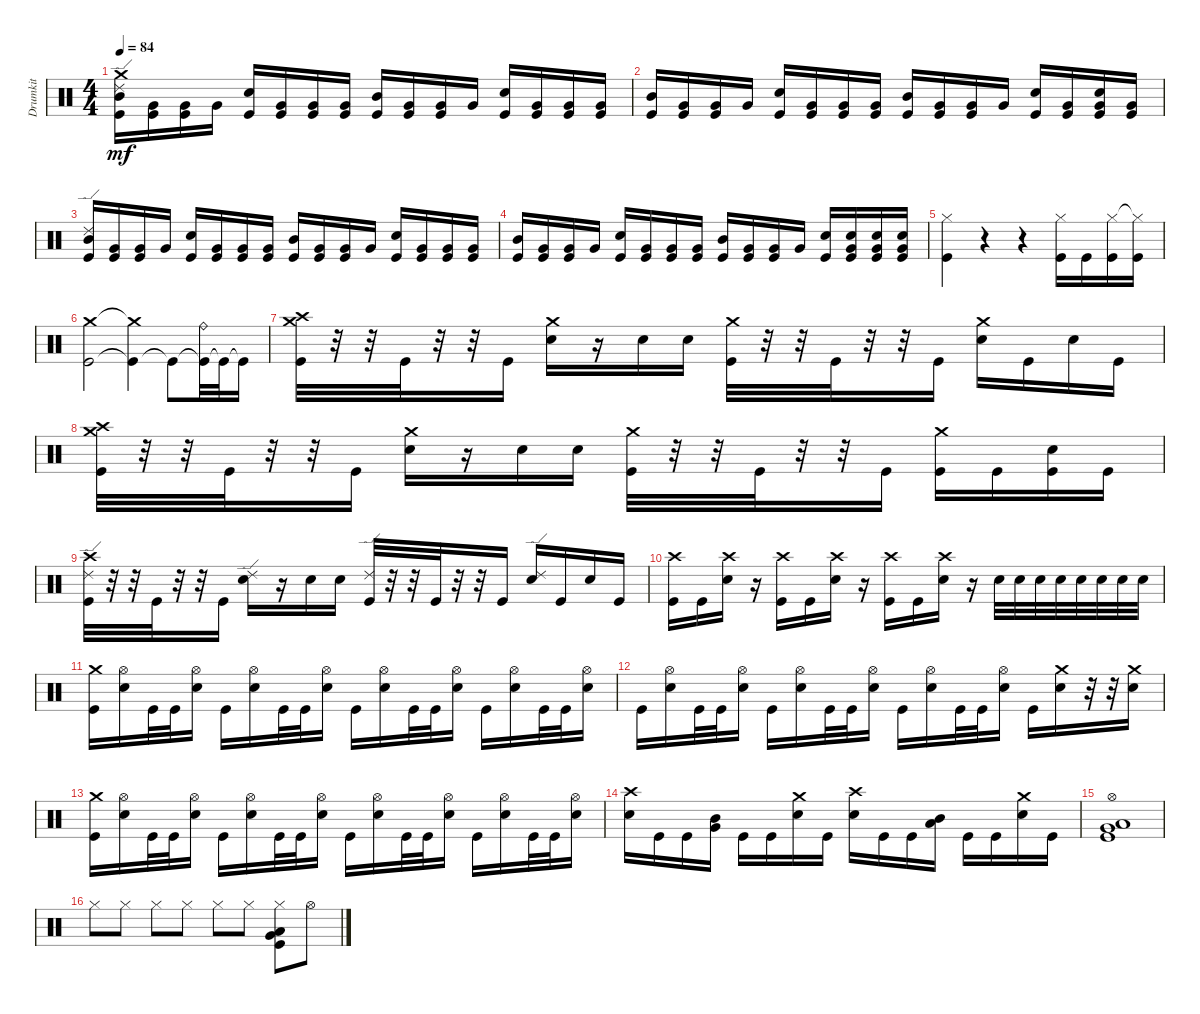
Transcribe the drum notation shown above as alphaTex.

\track ("Drumkit" "Drumkit") {instrument percussion}
\staff {score}
\articulation defaults
\ts (4 4)
\tempo 84
\clef neutral
\ks c
("Kick (hit)" "Mid Tom (hit)" "Ride (edge) 2" "Crash medium (hit)").16{dy mf} ("Kick (hit)" "Very Low Tom (hit)").16 ("Kick (hit)" "Very Low Tom (hit)").16 "Very Low Tom (hit)".16 ("Kick (hit)" "Snare (hit) 2").16 ("Kick (hit)" "Very Low Tom (hit)").16 ("Kick (hit)" "Very Low Tom (hit)").16 ("Kick (hit)" "Very Low Tom (hit)").16 ("Kick (hit)" "Mid Tom (hit)").16 ("Kick (hit)" "Very Low Tom (hit)").16 ("Kick (hit)" "Very Low Tom (hit)").16 "Very Low Tom (hit)".16 ("Kick (hit)" "Snare (hit) 2").16 ("Kick (hit)" "Very Low Tom (hit)").16 ("Kick (hit)" "Very Low Tom (hit)").16 ("Kick (hit)" "Very Low Tom (hit)").16 |
("Kick (hit)" "Mid Tom (hit)").16 ("Kick (hit)" "Very Low Tom (hit)").16 ("Kick (hit)" "Very Low Tom (hit)").16 "Very Low Tom (hit)".16 ("Kick (hit)" "Snare (hit) 2").16 ("Kick (hit)" "Very Low Tom (hit)").16 ("Kick (hit)" "Very Low Tom (hit)").16 ("Kick (hit)" "Very Low Tom (hit)").16 ("Kick (hit)" "Mid Tom (hit)").16 ("Kick (hit)" "Very Low Tom (hit)").16 ("Kick (hit)" "Very Low Tom (hit)").16 "Very Low Tom (hit)".16 ("Kick (hit)" "Snare (hit) 2").16 ("Kick (hit)" "Very Low Tom (hit)").16 ("Kick (hit)" "Very Low Tom (hit)" "Snare (hit) 2").16 ("Kick (hit)" "Very Low Tom (hit)").16 |
("Kick (hit)" "Mid Tom (hit)" "Ride (edge) 2").16 ("Kick (hit)" "Very Low Tom (hit)").16 ("Kick (hit)" "Very Low Tom (hit)").16 "Very Low Tom (hit)".16 ("Kick (hit)" "Snare (hit) 2").16 ("Kick (hit)" "Very Low Tom (hit)").16 ("Kick (hit)" "Very Low Tom (hit)").16 ("Kick (hit)" "Very Low Tom (hit)").16 ("Kick (hit)" "Mid Tom (hit)").16 ("Kick (hit)" "Very Low Tom (hit)").16 ("Kick (hit)" "Very Low Tom (hit)").16 "Very Low Tom (hit)".16 ("Kick (hit)" "Snare (hit) 2").16 ("Kick (hit)" "Very Low Tom (hit)").16 ("Kick (hit)" "Very Low Tom (hit)").16 ("Kick (hit)" "Very Low Tom (hit)").16 |
("Kick (hit)" "Mid Tom (hit)").16 ("Kick (hit)" "Very Low Tom (hit)").16 ("Kick (hit)" "Very Low Tom (hit)").16 "Very Low Tom (hit)".16 ("Kick (hit)" "Snare (hit) 2").16 ("Kick (hit)" "Very Low Tom (hit)").16 ("Kick (hit)" "Very Low Tom (hit)").16 ("Kick (hit)" "Very Low Tom (hit)").16 ("Kick (hit)" "Mid Tom (hit)").16 ("Kick (hit)" "Very Low Tom (hit)").16 ("Kick (hit)" "Very Low Tom (hit)").16 "Very Low Tom (hit)".16 ("Kick (hit)" "Snare (hit) 2").16 ("Kick (hit)" "Very Low Tom (hit)" "Snare (hit) 2").16 ("Kick (hit)" "Very Low Tom (hit)" "Snare (hit) 2").16 ("Kick (hit)" "Very Low Tom (hit)" "Snare (hit) 2").16 |
("Kick (hit)" "Hi-Hat (closed)").4 r.4 r.4 ("Kick (hit)" "Hi-Hat (closed)").16 "Kick (hit)".16 ("Kick (hit)" "Hi-Hat (closed)").16 ("Kick (hit)" "Hi-Hat (closed)"{t}).16 |
("Kick (hit)" "Crash medium (hit)").2 ("Kick (hit)"{t} "Crash medium (hit)"{t}).4 "Kick (hit)"{t}.8 ("Kick (hit)"{t} "Ride (bell)").32 "Kick (hit)"{t}.32 "Kick (hit)"{t}.16 |
("Kick (hit)" "Crash medium (hit)" "Crash high (hit)").32 r.32 r.32 "Kick (hit)".32 r.32 r.32 "Kick (hit)".16 ("Snare (hit) 2" "Crash medium (hit)").16 r.16 "Snare (hit) 2".16 "Snare (hit) 2".16 ("Kick (hit)" "Crash medium (hit)").32 r.32 r.32 "Kick (hit)".32 r.32 r.32 "Kick (hit)".16 ("Snare (hit) 2" "Crash medium (hit)").16 "Kick (hit)".16 "Snare (hit) 2".16 "Kick (hit)".16 |
("Kick (hit)" "Crash medium (hit)" "Crash high (hit)").32 r.32 r.32 "Kick (hit)".32 r.32 r.32 "Kick (hit)".16 ("Snare (hit) 2" "Crash medium (hit)").16 r.16 "Snare (hit) 2".16 "Snare (hit) 2".16 ("Kick (hit)" "Crash medium (hit)").32 r.32 r.32 "Kick (hit)".32 r.32 r.32 "Kick (hit)".16 ("Crash medium (hit)" "Kick (hit)").16 "Kick (hit)".16 ("Kick (hit)" "Snare (hit) 2").16 "Kick (hit)".16 |
("Kick (hit)" "Crash high (hit)" "Ride (edge) 2").32 r.32 r.32 "Kick (hit)".32 r.32 r.32 "Kick (hit)".16 ("Snare (hit) 2" "Ride (edge) 2").16 r.16 "Snare (hit) 2".16 "Snare (hit) 2".16 ("Kick (hit)" "Ride (edge) 2").32 r.32 r.32 "Kick (hit)".32 r.32 r.32 "Kick (hit)".16 ("Snare (hit) 2" "Ride (edge) 2").16 "Kick (hit)".16 "Snare (hit) 2".16 "Kick (hit)".16 |
("Kick (hit)" "Crash high (hit)").16 "Kick (hit)".16 ("Snare (hit) 2" "Crash high (hit)").16 r.16 ("Kick (hit)" "Crash high (hit)").16 "Kick (hit)".16 ("Snare (hit) 2" "Crash high (hit)").16 r.16 ("Kick (hit)" "Crash high (hit)").16 "Kick (hit)".16 ("Snare (hit) 2" "Crash high (hit)").16 r.16 "Snare (hit) 2".32 "Snare (hit) 2".32 "Snare (hit) 2".32 "Snare (hit) 2".32 "Snare (hit) 2".32 "Snare (hit) 2".32 "Snare (hit) 2".32 "Snare (hit) 2".32 |
("Kick (hit)" "Crash medium (hit)").16 ("Snare (hit) 2" "Hi-Hat (open)").16 "Kick (hit)".32 "Kick (hit)".32 ("Snare (hit) 2" "Hi-Hat (open)").16 "Kick (hit)".16 ("Snare (hit) 2" "Hi-Hat (open)").16 "Kick (hit)".32 "Kick (hit)".32 ("Snare (hit) 2" "Hi-Hat (open)").16 "Kick (hit)".16 ("Snare (hit) 2" "Hi-Hat (open)").16 "Kick (hit)".32 "Kick (hit)".32 ("Snare (hit) 2" "Hi-Hat (open)").16 "Kick (hit)".16 ("Snare (hit) 2" "Hi-Hat (open)").16 "Kick (hit)".32 "Kick (hit)".32 ("Snare (hit) 2" "Hi-Hat (open)").16 |
"Kick (hit)".16 ("Snare (hit) 2" "Hi-Hat (open)").16 "Kick (hit)".32 "Kick (hit)".32 ("Snare (hit) 2" "Hi-Hat (open)").16 "Kick (hit)".16 ("Snare (hit) 2" "Hi-Hat (open)").16 "Kick (hit)".32 "Kick (hit)".32 ("Snare (hit) 2" "Hi-Hat (open)").16 "Kick (hit)".16 ("Snare (hit) 2" "Hi-Hat (open)").16 "Kick (hit)".32 "Kick (hit)".32 ("Snare (hit) 2" "Hi-Hat (open)").16 "Kick (hit)".16 ("Snare (hit) 2" "Crash medium (hit)").16 r.32 r.32 ("Snare (hit) 2" "Crash medium (hit)").16 |
("Kick (hit)" "Crash medium (hit)").16 ("Snare (hit) 2" "Hi-Hat (open)").16 "Kick (hit)".32 "Kick (hit)".32 ("Snare (hit) 2" "Hi-Hat (open)").16 "Kick (hit)".16 ("Snare (hit) 2" "Hi-Hat (open)").16 "Kick (hit)".32 "Kick (hit)".32 ("Snare (hit) 2" "Hi-Hat (open)").16 "Kick (hit)".16 ("Snare (hit) 2" "Hi-Hat (open)").16 "Kick (hit)".32 "Kick (hit)".32 ("Snare (hit) 2" "Hi-Hat (open)").16 "Kick (hit)".16 ("Snare (hit) 2" "Hi-Hat (open)").16 "Kick (hit)".32 "Kick (hit)".32 ("Snare (hit) 2" "Hi-Hat (open)").16 |
("Snare (hit) 2" "Crash high (hit)").16 "Kick (hit)".16 "Kick (hit)".16 ("Mid Tom (hit)" "Very Low Tom (hit)").16 "Kick (hit)".16 "Kick (hit)".16 ("Snare (hit) 2" "Crash medium (hit)").16 "Kick (hit)".16 ("Snare (hit) 2" "Crash high (hit)").16 "Kick (hit)".16 "Kick (hit)".16 ("Low Floor Tom (hit)" "Mid Tom (hit)").16 "Kick (hit)".16 "Kick (hit)".16 ("Snare (hit) 2" "Crash medium (hit)").16 "Kick (hit)".16 |
("Kick (hit)" "Hi-Hat (open)" "Low Floor Tom (hit)" "Very Low Tom (hit)").1 |
"Hi-Hat (closed)".8 "Hi-Hat (closed)".8 "Hi-Hat (closed)".8 "Hi-Hat (closed)".8 "Hi-Hat (closed)".8 "Hi-Hat (closed)".8 ("Hi-Hat (closed)" "Very Low Tom (hit)" "Kick (hit)" "Low Floor Tom (hit)").8 "Hi-Hat (open)".8
